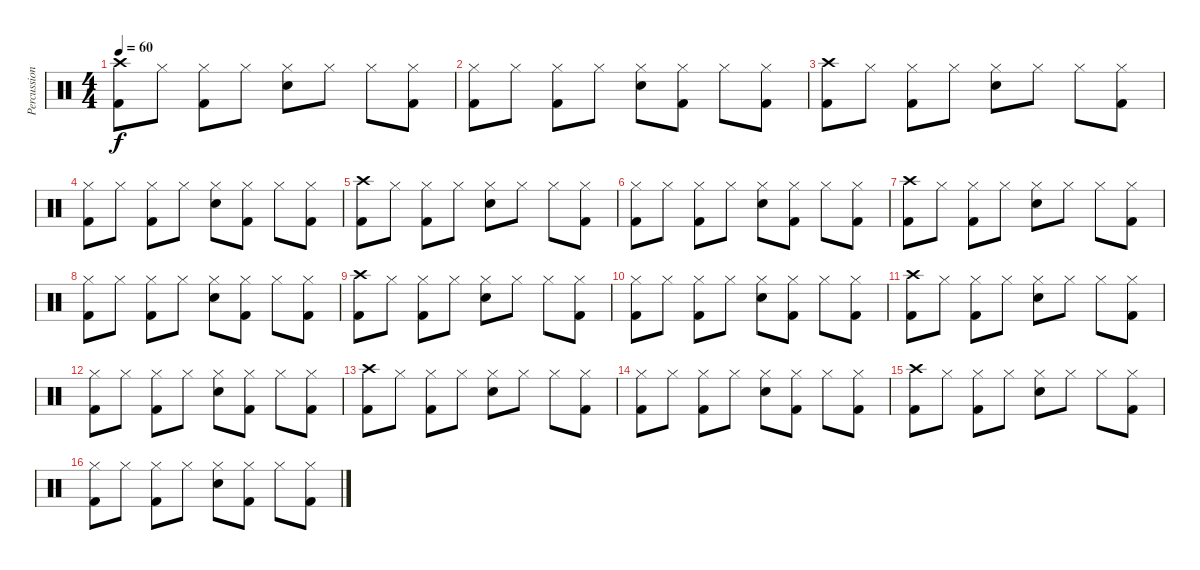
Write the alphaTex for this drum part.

\track ("Percussion" "Percussion") {instrument percussion}
\staff {score}
\articulation defaults
\ts (4 4)
\tempo 60
\clef neutral
\ks c
("Crash high (hit)" "Kick (hit) 2").8{dy f} "Hi-Hat (closed)".8 ("Hi-Hat (closed)" "Kick (hit) 2").8 "Hi-Hat (closed)".8 ("Hi-Hat (closed)" "Snare (hit) 2").8 "Hi-Hat (closed)".8 "Hi-Hat (closed)".8 ("Hi-Hat (closed)" "Kick (hit) 2").8 |
("Hi-Hat (closed)" "Kick (hit) 2").8 "Hi-Hat (closed)".8 ("Hi-Hat (closed)" "Kick (hit) 2").8 "Hi-Hat (closed)".8 ("Hi-Hat (closed)" "Snare (hit) 2").8 ("Hi-Hat (closed)" "Kick (hit) 2").8 "Hi-Hat (closed)".8 ("Hi-Hat (closed)" "Kick (hit) 2").8 |
("Crash high (hit)" "Kick (hit) 2").8 "Hi-Hat (closed)".8 ("Hi-Hat (closed)" "Kick (hit) 2").8 "Hi-Hat (closed)".8 ("Hi-Hat (closed)" "Snare (hit) 2").8 "Hi-Hat (closed)".8 "Hi-Hat (closed)".8 ("Hi-Hat (closed)" "Kick (hit) 2").8 |
("Hi-Hat (closed)" "Kick (hit) 2").8 "Hi-Hat (closed)".8 ("Hi-Hat (closed)" "Kick (hit) 2").8 "Hi-Hat (closed)".8 ("Hi-Hat (closed)" "Snare (hit) 2").8 ("Hi-Hat (closed)" "Kick (hit) 2").8 "Hi-Hat (closed)".8 ("Hi-Hat (closed)" "Kick (hit) 2").8 |
("Crash high (hit)" "Kick (hit) 2").8 "Hi-Hat (closed)".8 ("Hi-Hat (closed)" "Kick (hit) 2").8 "Hi-Hat (closed)".8 ("Hi-Hat (closed)" "Snare (hit) 2").8 "Hi-Hat (closed)".8 "Hi-Hat (closed)".8 ("Hi-Hat (closed)" "Kick (hit) 2").8 |
("Hi-Hat (closed)" "Kick (hit) 2").8 "Hi-Hat (closed)".8 ("Hi-Hat (closed)" "Kick (hit) 2").8 "Hi-Hat (closed)".8 ("Hi-Hat (closed)" "Snare (hit) 2").8 ("Hi-Hat (closed)" "Kick (hit) 2").8 "Hi-Hat (closed)".8 ("Hi-Hat (closed)" "Kick (hit) 2").8 |
("Crash high (hit)" "Kick (hit) 2").8 "Hi-Hat (closed)".8 ("Hi-Hat (closed)" "Kick (hit) 2").8 "Hi-Hat (closed)".8 ("Hi-Hat (closed)" "Snare (hit) 2").8 "Hi-Hat (closed)".8 "Hi-Hat (closed)".8 ("Hi-Hat (closed)" "Kick (hit) 2").8 |
("Hi-Hat (closed)" "Kick (hit) 2").8 "Hi-Hat (closed)".8 ("Hi-Hat (closed)" "Kick (hit) 2").8 "Hi-Hat (closed)".8 ("Hi-Hat (closed)" "Snare (hit) 2").8 ("Hi-Hat (closed)" "Kick (hit) 2").8 "Hi-Hat (closed)".8 ("Hi-Hat (closed)" "Kick (hit) 2").8 |
("Crash high (hit)" "Kick (hit) 2").8 "Hi-Hat (closed)".8 ("Hi-Hat (closed)" "Kick (hit) 2").8 "Hi-Hat (closed)".8 ("Hi-Hat (closed)" "Snare (hit) 2").8 "Hi-Hat (closed)".8 "Hi-Hat (closed)".8 ("Hi-Hat (closed)" "Kick (hit) 2").8 |
("Hi-Hat (closed)" "Kick (hit) 2").8 "Hi-Hat (closed)".8 ("Hi-Hat (closed)" "Kick (hit) 2").8 "Hi-Hat (closed)".8 ("Hi-Hat (closed)" "Snare (hit) 2").8 ("Hi-Hat (closed)" "Kick (hit) 2").8 "Hi-Hat (closed)".8 ("Hi-Hat (closed)" "Kick (hit) 2").8 |
("Crash high (hit)" "Kick (hit) 2").8 "Hi-Hat (closed)".8 ("Hi-Hat (closed)" "Kick (hit) 2").8 "Hi-Hat (closed)".8 ("Hi-Hat (closed)" "Snare (hit) 2").8 "Hi-Hat (closed)".8 "Hi-Hat (closed)".8 ("Hi-Hat (closed)" "Kick (hit) 2").8 |
("Hi-Hat (closed)" "Kick (hit) 2").8 "Hi-Hat (closed)".8 ("Hi-Hat (closed)" "Kick (hit) 2").8 "Hi-Hat (closed)".8 ("Hi-Hat (closed)" "Snare (hit) 2").8 ("Hi-Hat (closed)" "Kick (hit) 2").8 "Hi-Hat (closed)".8 ("Hi-Hat (closed)" "Kick (hit) 2").8 |
("Crash high (hit)" "Kick (hit) 2").8 "Hi-Hat (closed)".8 ("Hi-Hat (closed)" "Kick (hit) 2").8 "Hi-Hat (closed)".8 ("Hi-Hat (closed)" "Snare (hit) 2").8 "Hi-Hat (closed)".8 "Hi-Hat (closed)".8 ("Hi-Hat (closed)" "Kick (hit) 2").8 |
("Hi-Hat (closed)" "Kick (hit) 2").8 "Hi-Hat (closed)".8 ("Hi-Hat (closed)" "Kick (hit) 2").8 "Hi-Hat (closed)".8 ("Hi-Hat (closed)" "Snare (hit) 2").8 ("Hi-Hat (closed)" "Kick (hit) 2").8 "Hi-Hat (closed)".8 ("Hi-Hat (closed)" "Kick (hit) 2").8 |
("Crash high (hit)" "Kick (hit) 2").8 "Hi-Hat (closed)".8 ("Hi-Hat (closed)" "Kick (hit) 2").8 "Hi-Hat (closed)".8 ("Hi-Hat (closed)" "Snare (hit) 2").8 "Hi-Hat (closed)".8 "Hi-Hat (closed)".8 ("Hi-Hat (closed)" "Kick (hit) 2").8 |
("Hi-Hat (closed)" "Kick (hit) 2").8 "Hi-Hat (closed)".8 ("Hi-Hat (closed)" "Kick (hit) 2").8 "Hi-Hat (closed)".8 ("Hi-Hat (closed)" "Snare (hit) 2").8 ("Hi-Hat (closed)" "Kick (hit) 2").8 "Hi-Hat (closed)".8 ("Hi-Hat (closed)" "Kick (hit) 2").8
